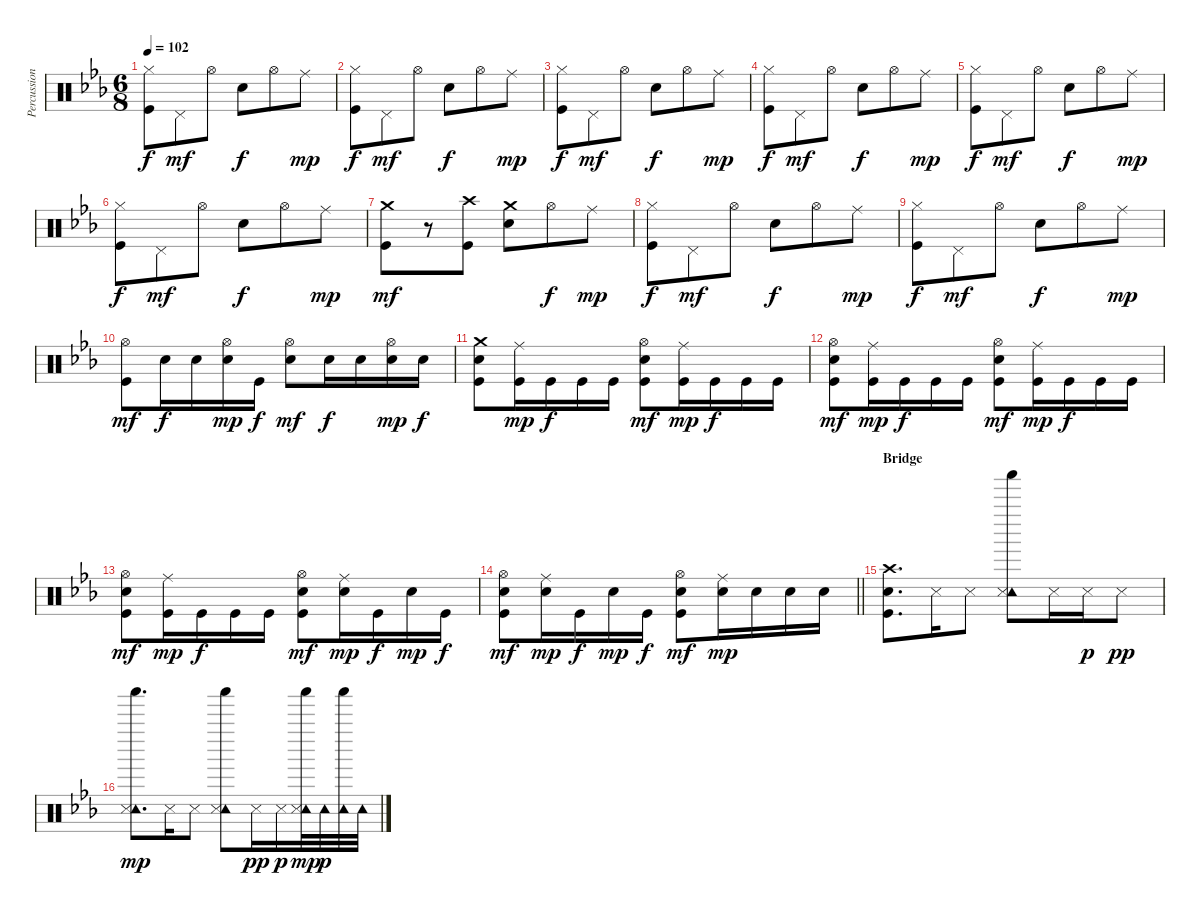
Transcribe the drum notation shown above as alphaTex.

\track ("Percussion" "Percussion") {instrument percussion}
\staff {score}
\articulation defaults
\ts (6 8)
\tempo 102
\clef neutral
\ks cminor
("Hi-Hat (closed)" "Kick (hit)").8{dy f} "Pedal Hi-Hat (hit)".8{dy mf} "Hi-Hat (open)".8 "Snare (hit) 2".8{dy f} "Hi-Hat (open)".8 "Ride (middle)".8{dy mp} |
("Hi-Hat (closed)" "Kick (hit)").8{dy f} "Pedal Hi-Hat (hit)".8{dy mf} "Hi-Hat (open)".8 "Snare (hit) 2".8{dy f} "Hi-Hat (open)".8 "Ride (middle)".8{dy mp} |
("Hi-Hat (closed)" "Kick (hit)").8{dy f} "Pedal Hi-Hat (hit)".8{dy mf} "Hi-Hat (open)".8 "Snare (hit) 2".8{dy f} "Hi-Hat (open)".8 "Ride (middle)".8{dy mp} |
("Hi-Hat (closed)" "Kick (hit)").8{dy f} "Pedal Hi-Hat (hit)".8{dy mf} "Hi-Hat (open)".8 "Snare (hit) 2".8{dy f} "Hi-Hat (open)".8 "Ride (middle)".8{dy mp} |
("Hi-Hat (closed)" "Kick (hit)").8{dy f} "Pedal Hi-Hat (hit)".8{dy mf} "Hi-Hat (open)".8 "Snare (hit) 2".8{dy f} "Hi-Hat (open)".8 "Ride (middle)".8{dy mp} |
("Hi-Hat (closed)" "Kick (hit)").8{dy f} "Pedal Hi-Hat (hit)".8{dy mf} "Hi-Hat (open)".8 "Snare (hit) 2".8{dy f} "Hi-Hat (open)".8 "Ride (middle)".8{dy mp} |
("Crash medium (hit)" "Kick (hit)").8{dy mf} r.8 ("Crash high (hit)" "Kick (hit)").8 ("Crash medium (hit)" "Snare (hit) 2").8 "Hi-Hat (open)".8{dy f} "Ride (middle)".8{dy mp} |
("Hi-Hat (closed)" "Kick (hit)").8{dy f} "Pedal Hi-Hat (hit)".8{dy mf} "Hi-Hat (open)".8 "Snare (hit) 2".8{dy f} "Hi-Hat (open)".8 "Ride (middle)".8{dy mp} |
("Hi-Hat (closed)" "Kick (hit)").8{dy f} "Pedal Hi-Hat (hit)".8{dy mf} "Hi-Hat (open)".8 "Snare (hit) 2".8{dy f} "Hi-Hat (open)".8 "Ride (middle)".8{dy mp} |
("Hi-Hat (open)" "Kick (hit)").8{dy mf} "Snare (hit) 2".16{dy f} "Snare (hit) 2".16 ("Hi-Hat (open)" "Snare (hit) 2").16{dy mp} "Kick (hit)".16{dy f} ("Hi-Hat (open)" "Snare (hit) 2").8{dy mf} "Snare (hit) 2".16{dy f} "Snare (hit) 2".16 ("Hi-Hat (open)" "Snare (hit) 2").16{dy mp} "Snare (hit) 2".16{dy f} |
("Crash medium (hit)" "Snare (hit) 2" "Kick (hit)").8 ("Ride (middle)" "Kick (hit)").16{dy mp} "Kick (hit)".16{dy f} "Kick (hit)".16 "Kick (hit)".16 ("Hi-Hat (open)" "Snare (hit) 2" "Kick (hit)").8{dy mf} ("Ride (middle)" "Kick (hit)").16{dy mp} "Kick (hit)".16{dy f} "Kick (hit)".16 "Kick (hit)".16 |
("Hi-Hat (open)" "Snare (hit) 2" "Kick (hit)").8{dy mf} ("Ride (middle)" "Kick (hit)").16{dy mp} "Kick (hit)".16{dy f} "Kick (hit)".16 "Kick (hit)".16 ("Hi-Hat (open)" "Snare (hit) 2" "Kick (hit)").8{dy mf} ("Ride (middle)" "Kick (hit)").16{dy mp} "Kick (hit)".16{dy f} "Kick (hit)".16 "Kick (hit)".16 |
("Hi-Hat (open)" "Snare (hit) 2" "Kick (hit)").8{dy mf} ("Ride (middle)" "Kick (hit)").16{dy mp} "Kick (hit)".16{dy f} "Kick (hit)".16 "Kick (hit)".16 ("Hi-Hat (open)" "Snare (hit) 2" "Kick (hit)").8{dy mf} ("Ride (middle)" "Snare (hit) 2").16{dy mp} "Kick (hit)".16{dy f} "Snare (hit) 2".16{dy mp} "Kick (hit)".16{dy f} |
\barLineRight lightlight
("Hi-Hat (open)" "Snare (hit) 2" "Kick (hit)").8{dy mf} ("Ride (middle)" "Snare (hit) 2").16{dy mp} "Kick (hit)".16{dy f} "Snare (hit) 2".16{dy mp} "Kick (hit)".16{dy f} ("Hi-Hat (open)" "Snare (hit) 2" "Kick (hit)").8{dy mf} ("Ride (middle)" "Snare (hit) 2").16{dy mp} "Snare (hit) 2".16 "Snare (hit) 2".16 "Snare (hit) 2".16 |
\section ("" "Bridge")
("Crash high (hit)" "Snare (hit) 2" "Kick (hit)").8{d} "Metronome (hit)".16 "Metronome (hit)".8 ("Shaker (hit)" "Tambourine (hit)" "Metronome (hit)").8 "Metronome (hit)".16 "Metronome (hit)".16{dy p} "Metronome (hit)".8{dy pp} |
("Shaker (hit)" "Tambourine (hit)" "Metronome (hit)").8{d dy mp} "Metronome (hit)".16 "Metronome (hit)".8 ("Shaker (hit)" "Tambourine (hit)" "Metronome (hit)").8 "Metronome (hit)".16{dy pp} "Metronome (hit)".16{dy p} ("Shaker (hit)" "Tambourine (hit)" "Metronome (hit)").32{dy mp} "Tambourine (hit)".32{dy p} ("Shaker (hit)" "Tambourine (hit)").32 "Tambourine (hit)".32
